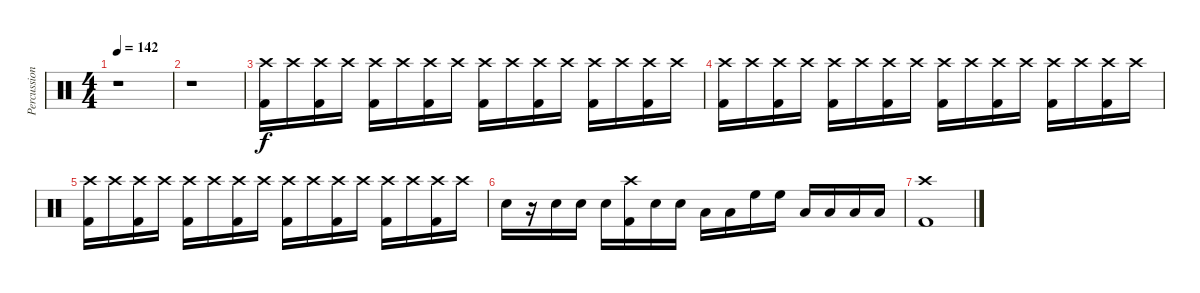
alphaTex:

\track ("Percussion" "Percussion") {instrument percussion}
\staff {score}
\articulation defaults
\ts (4 4)
\tempo 142
\clef neutral
\ks c
r.1{dy f} |
r.1 |
("Crash high (hit)" "Kick (hit) 2").16 "Crash high (hit)".16 ("Crash high (hit)" "Kick (hit) 2").16 "Crash high (hit)".16 ("Crash high (hit)" "Kick (hit) 2").16 "Crash high (hit)".16 ("Crash high (hit)" "Kick (hit) 2").16 "Crash high (hit)".16 ("Crash high (hit)" "Kick (hit) 2").16 "Crash high (hit)".16 ("Crash high (hit)" "Kick (hit) 2").16 "Crash high (hit)".16 ("Crash high (hit)" "Kick (hit) 2").16 "Crash high (hit)".16 ("Crash high (hit)" "Kick (hit) 2").16 "Crash high (hit)".16 |
("Crash high (hit)" "Kick (hit) 2").16 "Crash high (hit)".16 ("Crash high (hit)" "Kick (hit) 2").16 "Crash high (hit)".16 ("Crash high (hit)" "Kick (hit) 2").16 "Crash high (hit)".16 ("Crash high (hit)" "Kick (hit) 2").16 "Crash high (hit)".16 ("Crash high (hit)" "Kick (hit) 2").16 "Crash high (hit)".16 ("Crash high (hit)" "Kick (hit) 2").16 "Crash high (hit)".16 ("Crash high (hit)" "Kick (hit) 2").16 "Crash high (hit)".16 ("Crash high (hit)" "Kick (hit) 2").16 "Crash high (hit)".16 |
("Crash high (hit)" "Kick (hit) 2").16 "Crash high (hit)".16 ("Crash high (hit)" "Kick (hit) 2").16 "Crash high (hit)".16 ("Crash high (hit)" "Kick (hit) 2").16 "Crash high (hit)".16 ("Crash high (hit)" "Kick (hit) 2").16 "Crash high (hit)".16 ("Crash high (hit)" "Kick (hit) 2").16 "Crash high (hit)".16 ("Crash high (hit)" "Kick (hit) 2").16 "Crash high (hit)".16 ("Crash high (hit)" "Kick (hit) 2").16 "Crash high (hit)".16 ("Crash high (hit)" "Kick (hit) 2").16 "Crash high (hit)".16 |
"Snare (hit) 2".16 r.16 "Snare (hit) 2".16 "Snare (hit) 2".16 "Snare (hit) 2".16 ("Crash high (hit)" "Kick (hit) 2").16 "Snare (hit) 2".16 "Snare (hit) 2".16 "Low Tom (hit)".16 "Low Tom (hit)".16 "High Floor Tom (hit)".16 "High Floor Tom (hit)".16 "Low Floor Tom (hit)".16 "Low Floor Tom (hit)".16 "Low Floor Tom (hit)".16 "Low Floor Tom (hit)".16 |
("Crash high (hit)" "Kick (hit) 2").1
